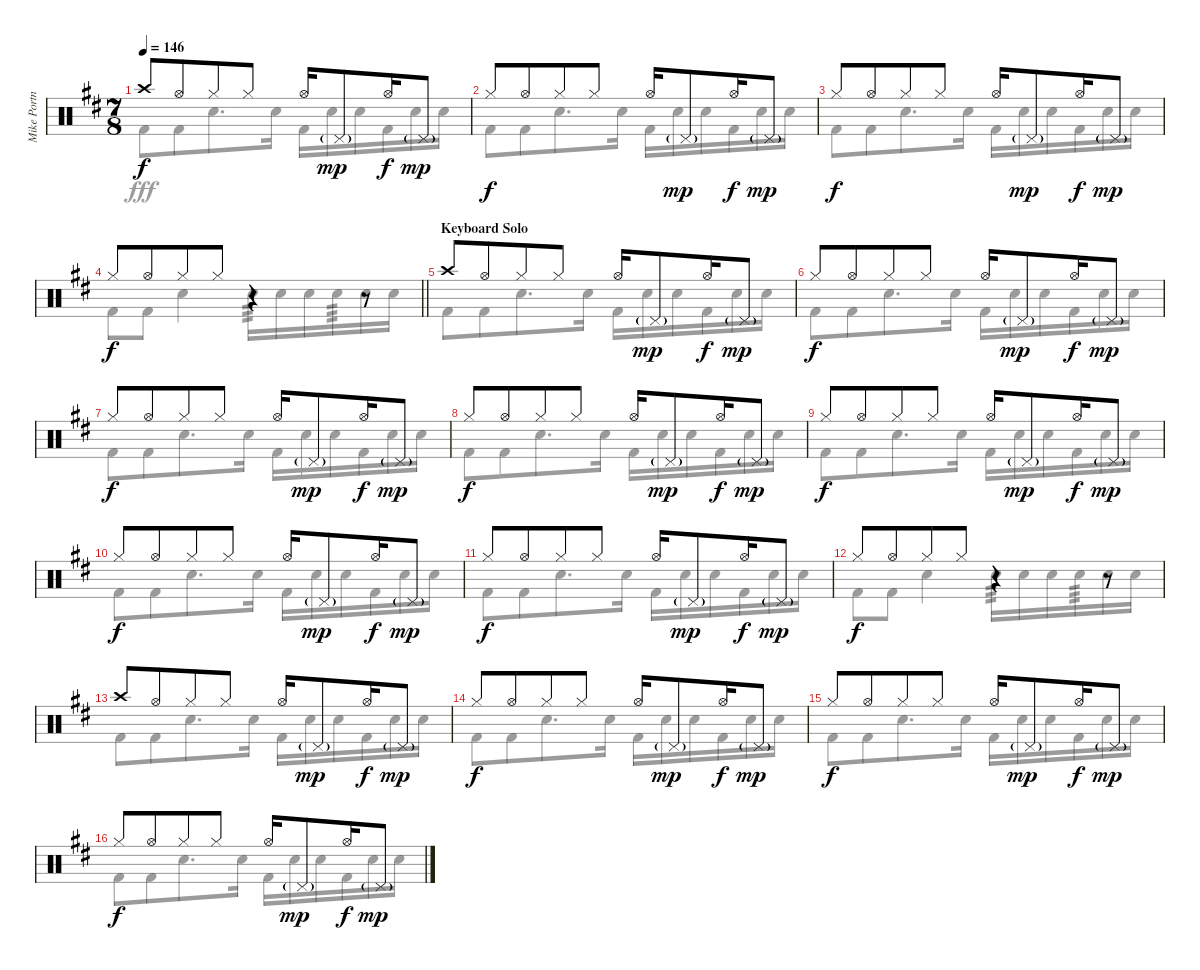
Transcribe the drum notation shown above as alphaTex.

\track ("Mike Portnoy Drums" "Mike Portn") {instrument percussion}
\staff {score}
\articulation defaults
\voice
\ts (7 8)
\tempo 146
\clef neutral
\ks bminor "Crash high (hit)".8{dy f} "Hi-Hat (open)".8 "Hi-Hat (closed)".8 "Hi-Hat (closed)".8 "Hi-Hat (open)".16 "Pedal Hi-Hat (hit)"{g}.8{dy mp} "Hi-Hat (open)".16{dy f} "Pedal Hi-Hat (hit)"{g}.8{dy mp}
|
"Hi-Hat (closed)".8{dy f} "Hi-Hat (open)".8 "Hi-Hat (closed)".8 "Hi-Hat (closed)".8 "Hi-Hat (open)".16 "Pedal Hi-Hat (hit)"{g}.8{dy mp} "Hi-Hat (open)".16{dy f} "Pedal Hi-Hat (hit)"{g}.8{dy mp} |
"Hi-Hat (closed)".8{dy f} "Hi-Hat (open)".8 "Hi-Hat (closed)".8 "Hi-Hat (closed)".8 "Hi-Hat (open)".16 "Pedal Hi-Hat (hit)"{g}.8{dy mp} "Hi-Hat (open)".16{dy f} "Pedal Hi-Hat (hit)"{g}.8{dy mp} |
\barLineRight lightlight "Hi-Hat (closed)".8{dy f} "Hi-Hat (open)".8 "Hi-Hat (closed)".8 "Hi-Hat (closed)".8
r.4 r.8 |
\section ("" "Keyboard Solo")
"Crash high (hit)".8 "Hi-Hat (open)".8 "Hi-Hat (closed)".8 "Hi-Hat (closed)".8 "Hi-Hat (open)".16 "Pedal Hi-Hat (hit)"{g}.8{dy mp} "Hi-Hat (open)".16{dy f} "Pedal Hi-Hat (hit)"{g}.8{dy mp} |
"Hi-Hat (closed)".8{dy f} "Hi-Hat (open)".8 "Hi-Hat (closed)".8 "Hi-Hat (closed)".8 "Hi-Hat (open)".16 "Pedal Hi-Hat (hit)"{g}.8{dy mp} "Hi-Hat (open)".16{dy f} "Pedal Hi-Hat (hit)"{g}.8{dy mp} |
"Hi-Hat (closed)".8{dy f} "Hi-Hat (open)".8 "Hi-Hat (closed)".8 "Hi-Hat (closed)".8 "Hi-Hat (open)".16 "Pedal Hi-Hat (hit)"{g}.8{dy mp} "Hi-Hat (open)".16{dy f} "Pedal Hi-Hat (hit)"{g}.8{dy mp} |
"Hi-Hat (closed)".8{dy f} "Hi-Hat (open)".8 "Hi-Hat (closed)".8 "Hi-Hat (closed)".8 "Hi-Hat (open)".16 "Pedal Hi-Hat (hit)"{g}.8{dy mp} "Hi-Hat (open)".16{dy f} "Pedal Hi-Hat (hit)"{g}.8{dy mp} |
"Hi-Hat (closed)".8{dy f} "Hi-Hat (open)".8 "Hi-Hat (closed)".8 "Hi-Hat (closed)".8 "Hi-Hat (open)".16 "Pedal Hi-Hat (hit)"{g}.8{dy mp} "Hi-Hat (open)".16{dy f} "Pedal Hi-Hat (hit)"{g}.8{dy mp} |
"Hi-Hat (closed)".8{dy f} "Hi-Hat (open)".8 "Hi-Hat (closed)".8 "Hi-Hat (closed)".8 "Hi-Hat (open)".16 "Pedal Hi-Hat (hit)"{g}.8{dy mp} "Hi-Hat (open)".16{dy f} "Pedal Hi-Hat (hit)"{g}.8{dy mp} |
"Hi-Hat (closed)".8{dy f} "Hi-Hat (open)".8 "Hi-Hat (closed)".8 "Hi-Hat (closed)".8 "Hi-Hat (open)".16 "Pedal Hi-Hat (hit)"{g}.8{dy mp} "Hi-Hat (open)".16{dy f} "Pedal Hi-Hat (hit)"{g}.8{dy mp} |
"Hi-Hat (closed)".8{dy f} "Hi-Hat (open)".8 "Hi-Hat (closed)".8 "Hi-Hat (closed)".8 r.4 r.8 |
"Crash high (hit)".8 "Hi-Hat (open)".8 "Hi-Hat (closed)".8 "Hi-Hat (closed)".8 "Hi-Hat (open)".16 "Pedal Hi-Hat (hit)"{g}.8{dy mp} "Hi-Hat (open)".16{dy f} "Pedal Hi-Hat (hit)"{g}.8{dy mp} |
"Hi-Hat (closed)".8{dy f} "Hi-Hat (open)".8 "Hi-Hat (closed)".8 "Hi-Hat (closed)".8 "Hi-Hat (open)".16 "Pedal Hi-Hat (hit)"{g}.8{dy mp} "Hi-Hat (open)".16{dy f} "Pedal Hi-Hat (hit)"{g}.8{dy mp} |
"Hi-Hat (closed)".8{dy f} "Hi-Hat (open)".8 "Hi-Hat (closed)".8 "Hi-Hat (closed)".8 "Hi-Hat (open)".16 "Pedal Hi-Hat (hit)"{g}.8{dy mp} "Hi-Hat (open)".16{dy f} "Pedal Hi-Hat (hit)"{g}.8{dy mp} |
"Hi-Hat (closed)".8{dy f} "Hi-Hat (open)".8 "Hi-Hat (closed)".8 "Hi-Hat (closed)".8 "Hi-Hat (open)".16 "Pedal Hi-Hat (hit)"{g}.8{dy mp} "Hi-Hat (open)".16{dy f} "Pedal Hi-Hat (hit)"{g}.8{dy mp}
\voice
\clef neutral
\ottava regular
\simile none
\ks bminor "Kick (hit) 2".8{dy fff} "Kick (hit) 2".8 "Snare (hit) 2".8{d} "Snare (hit) 2".16 "Kick (hit) 2".16 "Snare (hit) 2".16 "Snare (hit) 2".16 "Kick (hit) 2".16 "Snare (hit) 2".16 "Snare (hit) 2".16
|
"Kick (hit) 2".8 "Kick (hit) 2".8 "Snare (hit) 2".8{d} "Snare (hit) 2".16 "Kick (hit) 2".16 "Snare (hit) 2".16 "Snare (hit) 2".16 "Kick (hit) 2".16 "Snare (hit) 2".16 "Snare (hit) 2".16 |
"Kick (hit) 2".8 "Kick (hit) 2".8 "Snare (hit) 2".8{d} "Snare (hit) 2".16 "Kick (hit) 2".16 "Snare (hit) 2".16 "Snare (hit) 2".16 "Kick (hit) 2".16 "Snare (hit) 2".16 "Snare (hit) 2".16 |
\barLineRight lightlight "Kick (hit) 2".8 "Kick (hit) 2".8 "Snare (hit) 2".4 "Snare (hit) 2".16{tp 3} "Snare (hit) 2".16 "Snare (hit) 2".16 "Snare (hit) 2".16{tp 3} "Snare (hit) 2".16 "Snare (hit) 2".16
|
"Kick (hit) 2".8 "Kick (hit) 2".8 "Snare (hit) 2".8{d} "Snare (hit) 2".16 "Kick (hit) 2".16 "Snare (hit) 2".16 "Snare (hit) 2".16 "Kick (hit) 2".16 "Snare (hit) 2".16 "Snare (hit) 2".16 |
"Kick (hit) 2".8 "Kick (hit) 2".8 "Snare (hit) 2".8{d} "Snare (hit) 2".16 "Kick (hit) 2".16 "Snare (hit) 2".16 "Snare (hit) 2".16 "Kick (hit) 2".16 "Snare (hit) 2".16 "Snare (hit) 2".16 |
"Kick (hit) 2".8 "Kick (hit) 2".8 "Snare (hit) 2".8{d} "Snare (hit) 2".16 "Kick (hit) 2".16 "Snare (hit) 2".16 "Snare (hit) 2".16 "Kick (hit) 2".16 "Snare (hit) 2".16 "Snare (hit) 2".16 |
"Kick (hit) 2".8 "Kick (hit) 2".8 "Snare (hit) 2".8{d} "Snare (hit) 2".16 "Kick (hit) 2".16 "Snare (hit) 2".16 "Snare (hit) 2".16 "Kick (hit) 2".16 "Snare (hit) 2".16 "Snare (hit) 2".16 |
"Kick (hit) 2".8 "Kick (hit) 2".8 "Snare (hit) 2".8{d} "Snare (hit) 2".16 "Kick (hit) 2".16 "Snare (hit) 2".16 "Snare (hit) 2".16 "Kick (hit) 2".16 "Snare (hit) 2".16 "Snare (hit) 2".16 |
"Kick (hit) 2".8 "Kick (hit) 2".8 "Snare (hit) 2".8{d} "Snare (hit) 2".16 "Kick (hit) 2".16 "Snare (hit) 2".16 "Snare (hit) 2".16 "Kick (hit) 2".16 "Snare (hit) 2".16 "Snare (hit) 2".16 |
"Kick (hit) 2".8 "Kick (hit) 2".8 "Snare (hit) 2".8{d} "Snare (hit) 2".16 "Kick (hit) 2".16 "Snare (hit) 2".16 "Snare (hit) 2".16 "Kick (hit) 2".16 "Snare (hit) 2".16 "Snare (hit) 2".16 |
"Kick (hit) 2".8 "Kick (hit) 2".8 "Snare (hit) 2".4 "Snare (hit) 2".16{tp 3} "Snare (hit) 2".16 "Snare (hit) 2".16 "Snare (hit) 2".16{tp 3} "Snare (hit) 2".16 "Snare (hit) 2".16 |
"Kick (hit) 2".8 "Kick (hit) 2".8 "Snare (hit) 2".8{d} "Snare (hit) 2".16 "Kick (hit) 2".16 "Snare (hit) 2".16 "Snare (hit) 2".16 "Kick (hit) 2".16 "Snare (hit) 2".16 "Snare (hit) 2".16 |
"Kick (hit) 2".8 "Kick (hit) 2".8 "Snare (hit) 2".8{d} "Snare (hit) 2".16 "Kick (hit) 2".16 "Snare (hit) 2".16 "Snare (hit) 2".16 "Kick (hit) 2".16 "Snare (hit) 2".16 "Snare (hit) 2".16 |
"Kick (hit) 2".8 "Kick (hit) 2".8 "Snare (hit) 2".8{d} "Snare (hit) 2".16 "Kick (hit) 2".16 "Snare (hit) 2".16 "Snare (hit) 2".16 "Kick (hit) 2".16 "Snare (hit) 2".16 "Snare (hit) 2".16 |
"Kick (hit) 2".8 "Kick (hit) 2".8 "Snare (hit) 2".8{d} "Snare (hit) 2".16 "Kick (hit) 2".16 "Snare (hit) 2".16 "Snare (hit) 2".16 "Kick (hit) 2".16 "Snare (hit) 2".16 "Snare (hit) 2".16
